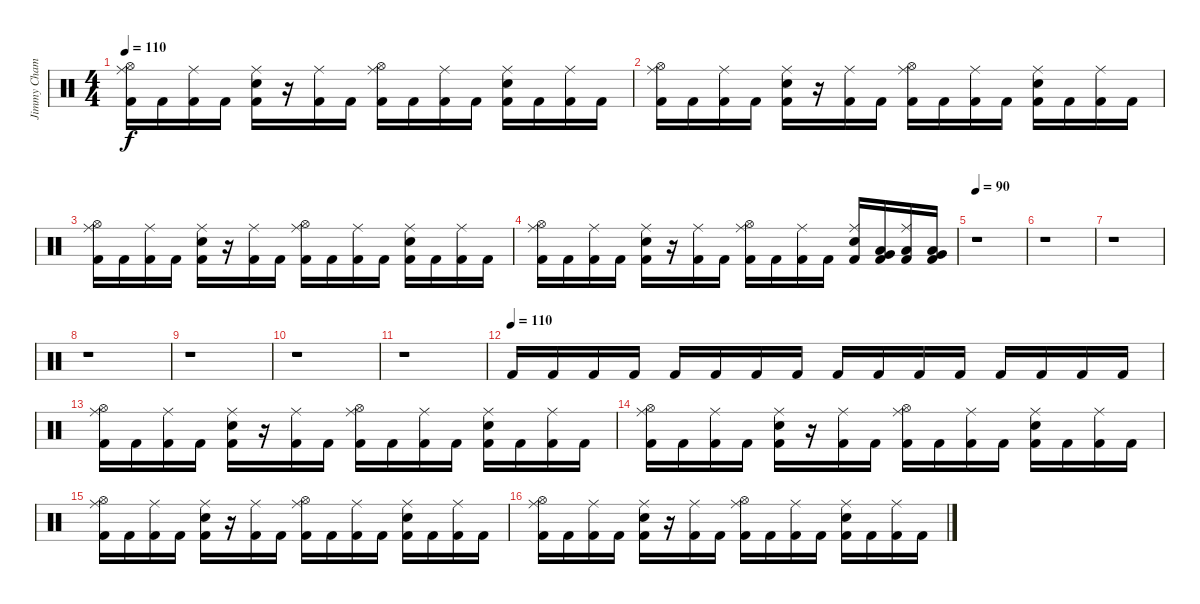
\track ("Jimmy Chamberlin" "Jimmy Cham") {instrument percussion}
\staff {score}
\articulation defaults
\ts (4 4)
\tempo 110
\clef neutral
\ks c
("Kick (hit) 2" "Hi-Hat (open)" "Ride (middle)").16{dy f} "Kick (hit) 2".16 ("Kick (hit) 2" "Ride (middle)").16 "Kick (hit) 2".16 ("Kick (hit) 2" "Snare (hit) 2" "Ride (middle)").16 r.16 ("Kick (hit) 2" "Ride (middle)").16 "Kick (hit) 2".16 ("Kick (hit) 2" "Hi-Hat (open)" "Ride (middle)").16 "Kick (hit) 2".16 ("Kick (hit) 2" "Ride (middle)").16 "Kick (hit) 2".16 ("Kick (hit) 2" "Snare (hit) 2" "Ride (middle)").16 "Kick (hit) 2".16 ("Kick (hit) 2" "Ride (middle)").16 "Kick (hit) 2".16 |
("Kick (hit) 2" "Hi-Hat (open)" "Ride (middle)").16 "Kick (hit) 2".16 ("Kick (hit) 2" "Ride (middle)").16 "Kick (hit) 2".16 ("Kick (hit) 2" "Snare (hit) 2" "Ride (middle)").16 r.16 ("Kick (hit) 2" "Ride (middle)").16 "Kick (hit) 2".16 ("Kick (hit) 2" "Hi-Hat (open)" "Ride (middle)").16 "Kick (hit) 2".16 ("Kick (hit) 2" "Ride (middle)").16 "Kick (hit) 2".16 ("Kick (hit) 2" "Snare (hit) 2" "Ride (middle)").16 "Kick (hit) 2".16 ("Kick (hit) 2" "Ride (middle)").16 "Kick (hit) 2".16 |
("Kick (hit) 2" "Hi-Hat (open)" "Ride (middle)").16 "Kick (hit) 2".16 ("Kick (hit) 2" "Ride (middle)").16 "Kick (hit) 2".16 ("Kick (hit) 2" "Snare (hit) 2" "Ride (middle)").16 r.16 ("Kick (hit) 2" "Ride (middle)").16 "Kick (hit) 2".16 ("Kick (hit) 2" "Hi-Hat (open)" "Ride (middle)").16 "Kick (hit) 2".16 ("Kick (hit) 2" "Ride (middle)").16 "Kick (hit) 2".16 ("Kick (hit) 2" "Snare (hit) 2" "Ride (middle)").16 "Kick (hit) 2".16 ("Kick (hit) 2" "Ride (middle)").16 "Kick (hit) 2".16 |
("Kick (hit) 2" "Hi-Hat (open)" "Ride (middle)").16 "Kick (hit) 2".16 ("Kick (hit) 2" "Ride (middle)").16 "Kick (hit) 2".16 ("Kick (hit) 2" "Snare (hit) 2" "Ride (middle)").16 r.16 ("Kick (hit) 2" "Ride (middle)").16 "Kick (hit) 2".16 ("Kick (hit) 2" "Hi-Hat (open)" "Ride (middle)").16 "Kick (hit) 2".16 ("Kick (hit) 2" "Ride (middle)").16 "Kick (hit) 2".16 ("Kick (hit) 2" "Snare (hit) 2" "Ride (middle)").16 ("Kick (hit) 2" "Low Floor Tom (hit)" "Very Low Tom (hit)").16 ("Kick (hit) 2" "Low Floor Tom (hit)" "Ride (middle)").16 ("Kick (hit) 2" "Low Floor Tom (hit)" "Very Low Tom (hit)").16 |
\tempo 90
r.1 |
r.1 |
r.1 |
r.1 |
r.1 |
r.1 |
r.1 |
\tempo (110)
"Kick (hit) 2".16 "Kick (hit) 2".16 "Kick (hit) 2".16 "Kick (hit) 2".16 "Kick (hit) 2".16 "Kick (hit) 2".16 "Kick (hit) 2".16 "Kick (hit) 2".16 "Kick (hit) 2".16 "Kick (hit) 2".16 "Kick (hit) 2".16 "Kick (hit) 2".16 "Kick (hit) 2".16 "Kick (hit) 2".16 "Kick (hit) 2".16 "Kick (hit) 2".16 |
("Kick (hit) 2" "Hi-Hat (open)" "Ride (middle)").16 "Kick (hit) 2".16 ("Kick (hit) 2" "Ride (middle)").16 "Kick (hit) 2".16 ("Kick (hit) 2" "Snare (hit) 2" "Ride (middle)").16 r.16 ("Kick (hit) 2" "Ride (middle)").16 "Kick (hit) 2".16 ("Kick (hit) 2" "Hi-Hat (open)" "Ride (middle)").16 "Kick (hit) 2".16 ("Kick (hit) 2" "Ride (middle)").16 "Kick (hit) 2".16 ("Kick (hit) 2" "Snare (hit) 2" "Ride (middle)").16 "Kick (hit) 2".16 ("Kick (hit) 2" "Ride (middle)").16 "Kick (hit) 2".16 |
("Kick (hit) 2" "Hi-Hat (open)" "Ride (middle)").16 "Kick (hit) 2".16 ("Kick (hit) 2" "Ride (middle)").16 "Kick (hit) 2".16 ("Kick (hit) 2" "Snare (hit) 2" "Ride (middle)").16 r.16 ("Kick (hit) 2" "Ride (middle)").16 "Kick (hit) 2".16 ("Kick (hit) 2" "Hi-Hat (open)" "Ride (middle)").16 "Kick (hit) 2".16 ("Kick (hit) 2" "Ride (middle)").16 "Kick (hit) 2".16 ("Kick (hit) 2" "Snare (hit) 2" "Ride (middle)").16 "Kick (hit) 2".16 ("Kick (hit) 2" "Ride (middle)").16 "Kick (hit) 2".16 |
("Kick (hit) 2" "Hi-Hat (open)" "Ride (middle)").16 "Kick (hit) 2".16 ("Kick (hit) 2" "Ride (middle)").16 "Kick (hit) 2".16 ("Kick (hit) 2" "Snare (hit) 2" "Ride (middle)").16 r.16 ("Kick (hit) 2" "Ride (middle)").16 "Kick (hit) 2".16 ("Kick (hit) 2" "Hi-Hat (open)" "Ride (middle)").16 "Kick (hit) 2".16 ("Kick (hit) 2" "Ride (middle)").16 "Kick (hit) 2".16 ("Kick (hit) 2" "Snare (hit) 2" "Ride (middle)").16 "Kick (hit) 2".16 ("Kick (hit) 2" "Ride (middle)").16 "Kick (hit) 2".16 |
("Kick (hit) 2" "Hi-Hat (open)" "Ride (middle)").16 "Kick (hit) 2".16 ("Kick (hit) 2" "Ride (middle)").16 "Kick (hit) 2".16 ("Kick (hit) 2" "Snare (hit) 2" "Ride (middle)").16 r.16 ("Kick (hit) 2" "Ride (middle)").16 "Kick (hit) 2".16 ("Kick (hit) 2" "Hi-Hat (open)" "Ride (middle)").16 "Kick (hit) 2".16 ("Kick (hit) 2" "Ride (middle)").16 "Kick (hit) 2".16 ("Kick (hit) 2" "Snare (hit) 2" "Ride (middle)").16 "Kick (hit) 2".16 ("Kick (hit) 2" "Ride (middle)").16 "Kick (hit) 2".16
